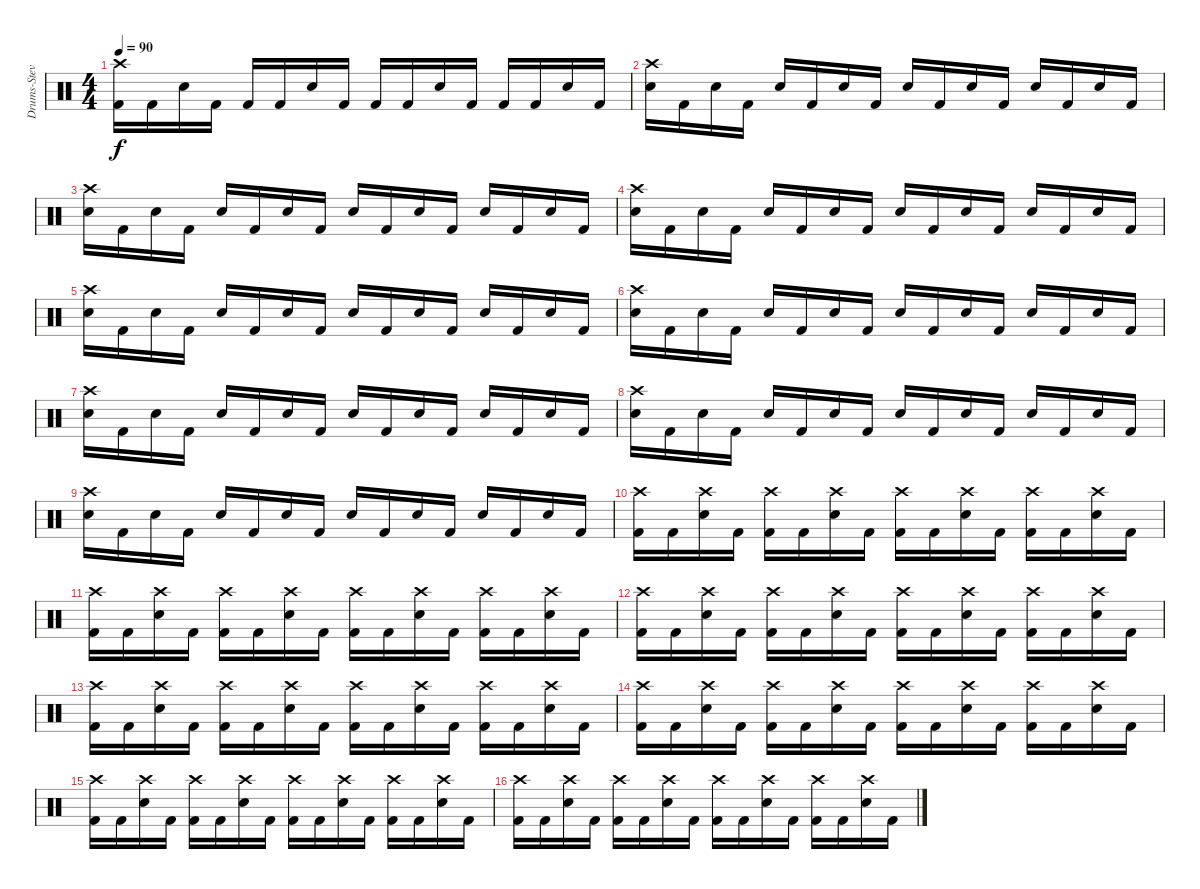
\track ("Drums-Steve" "Drums-Stev") {instrument percussion}
\staff {score}
\articulation defaults
\ts (4 4)
\tempo 90
\clef neutral
\ks c
("Crash high (hit)" "Kick (hit) 2").16{dy f} "Kick (hit) 2".16 "Electric Snare (hit)".16 "Kick (hit) 2".16 "Kick (hit) 2".16 "Kick (hit) 2".16 "Electric Snare (hit)".16 "Kick (hit) 2".16 "Kick (hit) 2".16 "Kick (hit) 2".16 "Electric Snare (hit)".16 "Kick (hit) 2".16 "Kick (hit) 2".16 "Kick (hit) 2".16 "Electric Snare (hit)".16 "Kick (hit) 2".16 |
("Crash high (hit)" "Electric Snare (hit)").16 "Kick (hit) 2".16 "Electric Snare (hit)".16 "Kick (hit) 2".16 "Electric Snare (hit)".16 "Kick (hit) 2".16 "Electric Snare (hit)".16 "Kick (hit) 2".16 "Electric Snare (hit)".16 "Kick (hit) 2".16 "Electric Snare (hit)".16 "Kick (hit) 2".16 "Electric Snare (hit)".16 "Kick (hit) 2".16 "Electric Snare (hit)".16 "Kick (hit) 2".16 |
("Crash high (hit)" "Electric Snare (hit)").16 "Kick (hit) 2".16 "Electric Snare (hit)".16 "Kick (hit) 2".16 "Electric Snare (hit)".16 "Kick (hit) 2".16 "Electric Snare (hit)".16 "Kick (hit) 2".16 "Electric Snare (hit)".16 "Kick (hit) 2".16 "Electric Snare (hit)".16 "Kick (hit) 2".16 "Electric Snare (hit)".16 "Kick (hit) 2".16 "Electric Snare (hit)".16 "Kick (hit) 2".16 |
("Crash high (hit)" "Electric Snare (hit)").16 "Kick (hit) 2".16 "Electric Snare (hit)".16 "Kick (hit) 2".16 "Electric Snare (hit)".16 "Kick (hit) 2".16 "Electric Snare (hit)".16 "Kick (hit) 2".16 "Electric Snare (hit)".16 "Kick (hit) 2".16 "Electric Snare (hit)".16 "Kick (hit) 2".16 "Electric Snare (hit)".16 "Kick (hit) 2".16 "Electric Snare (hit)".16 "Kick (hit) 2".16 |
("Crash high (hit)" "Electric Snare (hit)").16 "Kick (hit) 2".16 "Electric Snare (hit)".16 "Kick (hit) 2".16 "Electric Snare (hit)".16 "Kick (hit) 2".16 "Electric Snare (hit)".16 "Kick (hit) 2".16 "Electric Snare (hit)".16 "Kick (hit) 2".16 "Electric Snare (hit)".16 "Kick (hit) 2".16 "Electric Snare (hit)".16 "Kick (hit) 2".16 "Electric Snare (hit)".16 "Kick (hit) 2".16 |
("Crash high (hit)" "Electric Snare (hit)").16 "Kick (hit) 2".16 "Electric Snare (hit)".16 "Kick (hit) 2".16 "Electric Snare (hit)".16 "Kick (hit) 2".16 "Electric Snare (hit)".16 "Kick (hit) 2".16 "Electric Snare (hit)".16 "Kick (hit) 2".16 "Electric Snare (hit)".16 "Kick (hit) 2".16 "Electric Snare (hit)".16 "Kick (hit) 2".16 "Electric Snare (hit)".16 "Kick (hit) 2".16 |
("Crash high (hit)" "Electric Snare (hit)").16 "Kick (hit) 2".16 "Electric Snare (hit)".16 "Kick (hit) 2".16 "Electric Snare (hit)".16 "Kick (hit) 2".16 "Electric Snare (hit)".16 "Kick (hit) 2".16 "Electric Snare (hit)".16 "Kick (hit) 2".16 "Electric Snare (hit)".16 "Kick (hit) 2".16 "Electric Snare (hit)".16 "Kick (hit) 2".16 "Electric Snare (hit)".16 "Kick (hit) 2".16 |
("Crash high (hit)" "Electric Snare (hit)").16 "Kick (hit) 2".16 "Electric Snare (hit)".16 "Kick (hit) 2".16 "Electric Snare (hit)".16 "Kick (hit) 2".16 "Electric Snare (hit)".16 "Kick (hit) 2".16 "Electric Snare (hit)".16 "Kick (hit) 2".16 "Electric Snare (hit)".16 "Kick (hit) 2".16 "Electric Snare (hit)".16 "Kick (hit) 2".16 "Electric Snare (hit)".16 "Kick (hit) 2".16 |
("Crash high (hit)" "Electric Snare (hit)").16 "Kick (hit) 2".16 "Electric Snare (hit)".16 "Kick (hit) 2".16 "Electric Snare (hit)".16 "Kick (hit) 2".16 "Electric Snare (hit)".16 "Kick (hit) 2".16 "Electric Snare (hit)".16 "Kick (hit) 2".16 "Electric Snare (hit)".16 "Kick (hit) 2".16 "Electric Snare (hit)".16 "Kick (hit) 2".16 "Electric Snare (hit)".16 "Kick (hit) 2".16 |
("Crash high (hit)" "Kick (hit) 2").16 "Kick (hit) 2".16 ("Crash high (hit)" "Electric Snare (hit)").16 "Kick (hit) 2".16 ("Crash high (hit)" "Kick (hit) 2").16 "Kick (hit) 2".16 ("Crash high (hit)" "Electric Snare (hit)").16 "Kick (hit) 2".16 ("Crash high (hit)" "Kick (hit) 2").16 "Kick (hit) 2".16 ("Crash high (hit)" "Electric Snare (hit)").16 "Kick (hit) 2".16 ("Crash high (hit)" "Kick (hit) 2").16 "Kick (hit) 2".16 ("Crash high (hit)" "Electric Snare (hit)").16 "Kick (hit) 2".16 |
("Crash high (hit)" "Kick (hit) 2").16 "Kick (hit) 2".16 ("Crash high (hit)" "Electric Snare (hit)").16 "Kick (hit) 2".16 ("Crash high (hit)" "Kick (hit) 2").16 "Kick (hit) 2".16 ("Crash high (hit)" "Electric Snare (hit)").16 "Kick (hit) 2".16 ("Crash high (hit)" "Kick (hit) 2").16 "Kick (hit) 2".16 ("Crash high (hit)" "Electric Snare (hit)").16 "Kick (hit) 2".16 ("Crash high (hit)" "Kick (hit) 2").16 "Kick (hit) 2".16 ("Crash high (hit)" "Electric Snare (hit)").16 "Kick (hit) 2".16 |
("Crash high (hit)" "Kick (hit) 2").16 "Kick (hit) 2".16 ("Crash high (hit)" "Electric Snare (hit)").16 "Kick (hit) 2".16 ("Crash high (hit)" "Kick (hit) 2").16 "Kick (hit) 2".16 ("Crash high (hit)" "Electric Snare (hit)").16 "Kick (hit) 2".16 ("Crash high (hit)" "Kick (hit) 2").16 "Kick (hit) 2".16 ("Crash high (hit)" "Electric Snare (hit)").16 "Kick (hit) 2".16 ("Crash high (hit)" "Kick (hit) 2").16 "Kick (hit) 2".16 ("Crash high (hit)" "Electric Snare (hit)").16 "Kick (hit) 2".16 |
("Crash high (hit)" "Kick (hit) 2").16 "Kick (hit) 2".16 ("Crash high (hit)" "Electric Snare (hit)").16 "Kick (hit) 2".16 ("Crash high (hit)" "Kick (hit) 2").16 "Kick (hit) 2".16 ("Crash high (hit)" "Electric Snare (hit)").16 "Kick (hit) 2".16 ("Crash high (hit)" "Kick (hit) 2").16 "Kick (hit) 2".16 ("Crash high (hit)" "Electric Snare (hit)").16 "Kick (hit) 2".16 ("Crash high (hit)" "Kick (hit) 2").16 "Kick (hit) 2".16 ("Crash high (hit)" "Electric Snare (hit)").16 "Kick (hit) 2".16 |
("Crash high (hit)" "Kick (hit) 2").16 "Kick (hit) 2".16 ("Crash high (hit)" "Electric Snare (hit)").16 "Kick (hit) 2".16 ("Crash high (hit)" "Kick (hit) 2").16 "Kick (hit) 2".16 ("Crash high (hit)" "Electric Snare (hit)").16 "Kick (hit) 2".16 ("Crash high (hit)" "Kick (hit) 2").16 "Kick (hit) 2".16 ("Crash high (hit)" "Electric Snare (hit)").16 "Kick (hit) 2".16 ("Crash high (hit)" "Kick (hit) 2").16 "Kick (hit) 2".16 ("Crash high (hit)" "Electric Snare (hit)").16 "Kick (hit) 2".16 |
("Crash high (hit)" "Kick (hit) 2").16 "Kick (hit) 2".16 ("Crash high (hit)" "Electric Snare (hit)").16 "Kick (hit) 2".16 ("Crash high (hit)" "Kick (hit) 2").16 "Kick (hit) 2".16 ("Crash high (hit)" "Electric Snare (hit)").16 "Kick (hit) 2".16 ("Crash high (hit)" "Kick (hit) 2").16 "Kick (hit) 2".16 ("Crash high (hit)" "Electric Snare (hit)").16 "Kick (hit) 2".16 ("Crash high (hit)" "Kick (hit) 2").16 "Kick (hit) 2".16 ("Crash high (hit)" "Electric Snare (hit)").16 "Kick (hit) 2".16 |
("Crash high (hit)" "Kick (hit) 2").16 "Kick (hit) 2".16 ("Crash high (hit)" "Electric Snare (hit)").16 "Kick (hit) 2".16 ("Crash high (hit)" "Kick (hit) 2").16 "Kick (hit) 2".16 ("Crash high (hit)" "Electric Snare (hit)").16 "Kick (hit) 2".16 ("Crash high (hit)" "Kick (hit) 2").16 "Kick (hit) 2".16 ("Crash high (hit)" "Electric Snare (hit)").16 "Kick (hit) 2".16 ("Crash high (hit)" "Kick (hit) 2").16 "Kick (hit) 2".16 ("Crash high (hit)" "Electric Snare (hit)").16 "Kick (hit) 2".16
